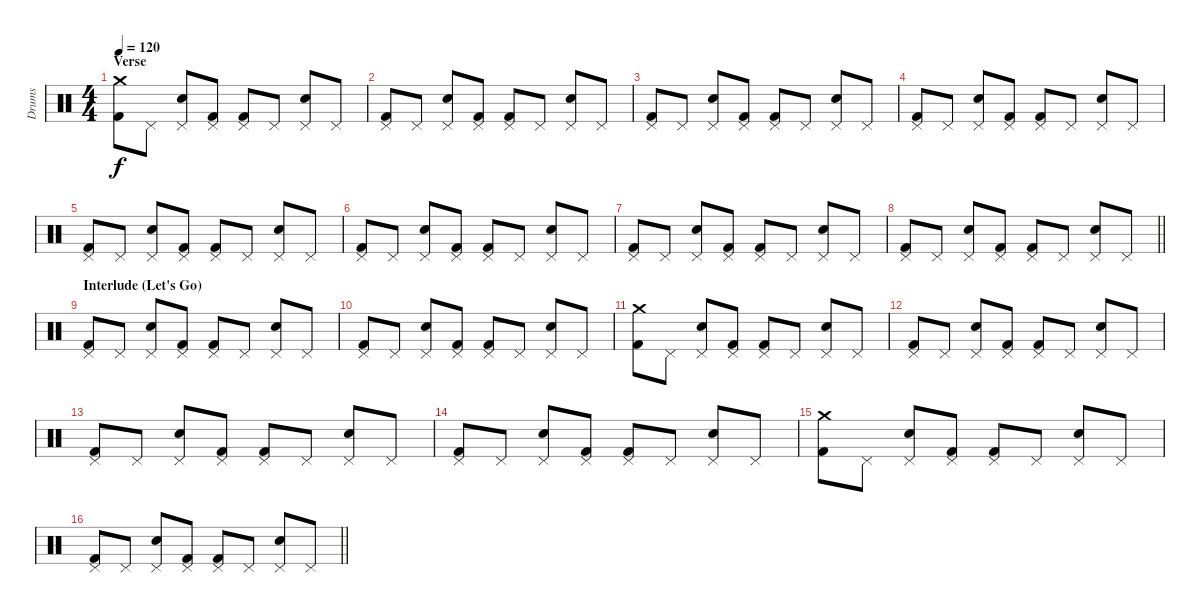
\track ("Drums" "Drums") {instrument percussion}
\staff {score}
\articulation defaults
\ts (4 4)
\section ("" "Verse")
\tempo 120
\clef neutral
\ks c
("Crash medium (hit)" "Kick (hit) 2").8{dy f} "Pedal Hi-Hat (hit)".8 ("Pedal Hi-Hat (hit)" "Electric Snare (hit)").8 ("Pedal Hi-Hat (hit)" "Kick (hit) 2").8 ("Pedal Hi-Hat (hit)" "Kick (hit) 2").8 "Pedal Hi-Hat (hit)".8 ("Pedal Hi-Hat (hit)" "Electric Snare (hit)").8 "Pedal Hi-Hat (hit)".8 |
("Pedal Hi-Hat (hit)" "Kick (hit) 2").8 "Pedal Hi-Hat (hit)".8 ("Pedal Hi-Hat (hit)" "Electric Snare (hit)").8 ("Pedal Hi-Hat (hit)" "Kick (hit) 2").8 ("Pedal Hi-Hat (hit)" "Kick (hit) 2").8 "Pedal Hi-Hat (hit)".8 ("Pedal Hi-Hat (hit)" "Electric Snare (hit)").8 "Pedal Hi-Hat (hit)".8 |
("Pedal Hi-Hat (hit)" "Kick (hit) 2").8 "Pedal Hi-Hat (hit)".8 ("Pedal Hi-Hat (hit)" "Electric Snare (hit)").8 ("Pedal Hi-Hat (hit)" "Kick (hit) 2").8 ("Pedal Hi-Hat (hit)" "Kick (hit) 2").8 "Pedal Hi-Hat (hit)".8 ("Pedal Hi-Hat (hit)" "Electric Snare (hit)").8 "Pedal Hi-Hat (hit)".8 |
("Pedal Hi-Hat (hit)" "Kick (hit) 2").8 "Pedal Hi-Hat (hit)".8 ("Pedal Hi-Hat (hit)" "Electric Snare (hit)").8 ("Pedal Hi-Hat (hit)" "Kick (hit) 2").8 ("Pedal Hi-Hat (hit)" "Kick (hit) 2").8 "Pedal Hi-Hat (hit)".8 ("Pedal Hi-Hat (hit)" "Electric Snare (hit)").8 "Pedal Hi-Hat (hit)".8 |
("Pedal Hi-Hat (hit)" "Kick (hit) 2").8 "Pedal Hi-Hat (hit)".8 ("Pedal Hi-Hat (hit)" "Electric Snare (hit)").8 ("Pedal Hi-Hat (hit)" "Kick (hit) 2").8 ("Pedal Hi-Hat (hit)" "Kick (hit) 2").8 "Pedal Hi-Hat (hit)".8 ("Pedal Hi-Hat (hit)" "Electric Snare (hit)").8 "Pedal Hi-Hat (hit)".8 |
("Pedal Hi-Hat (hit)" "Kick (hit) 2").8 "Pedal Hi-Hat (hit)".8 ("Pedal Hi-Hat (hit)" "Electric Snare (hit)").8 ("Pedal Hi-Hat (hit)" "Kick (hit) 2").8 ("Pedal Hi-Hat (hit)" "Kick (hit) 2").8 "Pedal Hi-Hat (hit)".8 ("Pedal Hi-Hat (hit)" "Electric Snare (hit)").8 "Pedal Hi-Hat (hit)".8 |
("Pedal Hi-Hat (hit)" "Kick (hit) 2").8 "Pedal Hi-Hat (hit)".8 ("Pedal Hi-Hat (hit)" "Electric Snare (hit)").8 ("Pedal Hi-Hat (hit)" "Kick (hit) 2").8 ("Pedal Hi-Hat (hit)" "Kick (hit) 2").8 "Pedal Hi-Hat (hit)".8 ("Pedal Hi-Hat (hit)" "Electric Snare (hit)").8 "Pedal Hi-Hat (hit)".8 |
\barLineRight lightlight
("Pedal Hi-Hat (hit)" "Kick (hit) 2").8 "Pedal Hi-Hat (hit)".8 ("Pedal Hi-Hat (hit)" "Electric Snare (hit)").8 ("Pedal Hi-Hat (hit)" "Kick (hit) 2").8 ("Pedal Hi-Hat (hit)" "Kick (hit) 2").8 "Pedal Hi-Hat (hit)".8 ("Pedal Hi-Hat (hit)" "Electric Snare (hit)").8 "Pedal Hi-Hat (hit)".8 |
\section ("" "Interlude (Let's Go)")
("Pedal Hi-Hat (hit)" "Kick (hit) 2").8 "Pedal Hi-Hat (hit)".8 ("Pedal Hi-Hat (hit)" "Electric Snare (hit)").8 ("Pedal Hi-Hat (hit)" "Kick (hit) 2").8 ("Pedal Hi-Hat (hit)" "Kick (hit) 2").8 "Pedal Hi-Hat (hit)".8 ("Pedal Hi-Hat (hit)" "Electric Snare (hit)").8 "Pedal Hi-Hat (hit)".8 |
("Pedal Hi-Hat (hit)" "Kick (hit) 2").8 "Pedal Hi-Hat (hit)".8 ("Pedal Hi-Hat (hit)" "Electric Snare (hit)").8 ("Pedal Hi-Hat (hit)" "Kick (hit) 2").8 ("Pedal Hi-Hat (hit)" "Kick (hit) 2").8 "Pedal Hi-Hat (hit)".8 ("Pedal Hi-Hat (hit)" "Electric Snare (hit)").8 "Pedal Hi-Hat (hit)".8 |
("Crash medium (hit)" "Kick (hit) 2").8 "Pedal Hi-Hat (hit)".8 ("Pedal Hi-Hat (hit)" "Electric Snare (hit)").8 ("Pedal Hi-Hat (hit)" "Kick (hit) 2").8 ("Pedal Hi-Hat (hit)" "Kick (hit) 2").8 "Pedal Hi-Hat (hit)".8 ("Pedal Hi-Hat (hit)" "Electric Snare (hit)").8 "Pedal Hi-Hat (hit)".8 |
("Pedal Hi-Hat (hit)" "Kick (hit) 2").8 "Pedal Hi-Hat (hit)".8 ("Pedal Hi-Hat (hit)" "Electric Snare (hit)").8 ("Pedal Hi-Hat (hit)" "Kick (hit) 2").8 ("Pedal Hi-Hat (hit)" "Kick (hit) 2").8 "Pedal Hi-Hat (hit)".8 ("Pedal Hi-Hat (hit)" "Electric Snare (hit)").8 "Pedal Hi-Hat (hit)".8 |
("Pedal Hi-Hat (hit)" "Kick (hit) 2").8 "Pedal Hi-Hat (hit)".8 ("Pedal Hi-Hat (hit)" "Electric Snare (hit)").8 ("Pedal Hi-Hat (hit)" "Kick (hit) 2").8 ("Pedal Hi-Hat (hit)" "Kick (hit) 2").8 "Pedal Hi-Hat (hit)".8 ("Pedal Hi-Hat (hit)" "Electric Snare (hit)").8 "Pedal Hi-Hat (hit)".8 |
("Pedal Hi-Hat (hit)" "Kick (hit) 2").8 "Pedal Hi-Hat (hit)".8 ("Pedal Hi-Hat (hit)" "Electric Snare (hit)").8 ("Pedal Hi-Hat (hit)" "Kick (hit) 2").8 ("Pedal Hi-Hat (hit)" "Kick (hit) 2").8 "Pedal Hi-Hat (hit)".8 ("Pedal Hi-Hat (hit)" "Electric Snare (hit)").8 "Pedal Hi-Hat (hit)".8 |
("Crash medium (hit)" "Kick (hit) 2").8 "Pedal Hi-Hat (hit)".8 ("Pedal Hi-Hat (hit)" "Electric Snare (hit)").8 ("Pedal Hi-Hat (hit)" "Kick (hit) 2").8 ("Pedal Hi-Hat (hit)" "Kick (hit) 2").8 "Pedal Hi-Hat (hit)".8 ("Pedal Hi-Hat (hit)" "Electric Snare (hit)").8 "Pedal Hi-Hat (hit)".8 |
\barLineRight lightlight
("Pedal Hi-Hat (hit)" "Kick (hit) 2").8 "Pedal Hi-Hat (hit)".8 ("Pedal Hi-Hat (hit)" "Electric Snare (hit)").8 ("Pedal Hi-Hat (hit)" "Kick (hit) 2").8 ("Pedal Hi-Hat (hit)" "Kick (hit) 2").8 "Pedal Hi-Hat (hit)".8 ("Pedal Hi-Hat (hit)" "Electric Snare (hit)").8 "Pedal Hi-Hat (hit)".8
